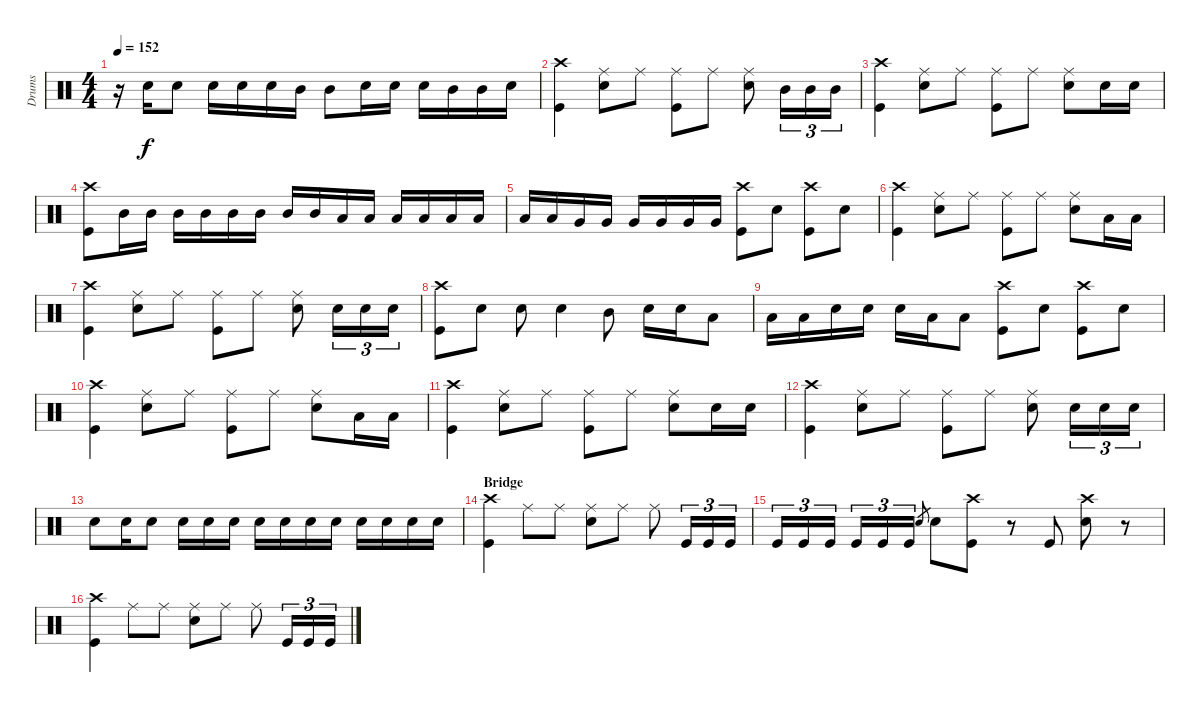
\track ("Drums" "Drums") {instrument percussion}
\staff {score}
\articulation defaults
\ts (4 4)
\tempo 152
\clef neutral
\ks c
r.16{dy f} "Snare (hit) 2".16 "Snare (hit) 2".8 "Snare (hit) 2".16 "Snare (hit) 2".16 "Snare (hit) 2".16 "Mid Tom (hit)".16 "Mid Tom (hit)".8 "Snare (hit) 2".16 "Snare (hit) 2".16 "Snare (hit) 2".16 "Mid Tom (hit)".16 "Mid Tom (hit)".16 "Snare (hit) 2".16 |
("Crash high (hit)" "Kick (hit)").4 ("Ride (middle)" "Snare (hit) 2").8 "Ride (middle)".8 ("Ride (middle)" "Kick (hit)").8 "Ride (middle)".8 ("Ride (middle)" "Snare (hit) 2").8 "Mid Tom (hit)".16{tu (3 2)} "Mid Tom (hit)".16{tu (3 2)} "Mid Tom (hit)".16{tu (3 2)} |
("Crash high (hit)" "Kick (hit)").4 ("Ride (middle)" "Snare (hit) 2").8 "Ride (middle)".8 ("Ride (middle)" "Kick (hit)").8 "Ride (middle)".8 ("Ride (middle)" "Snare (hit) 2").8 "Snare (hit) 2".16 "Snare (hit) 2".16 |
("Crash high (hit)" "Kick (hit)").8 "Mid Tom (hit)".16 "Mid Tom (hit)".16 "Mid Tom (hit)".16 "Mid Tom (hit)".16 "Mid Tom (hit)".16 "Mid Tom (hit)".16 "Mid Tom (hit)".16 "Mid Tom (hit)".16 "Low Tom (hit)".16 "Low Tom (hit)".16 "Low Tom (hit)".16 "Low Tom (hit)".16 "Low Tom (hit)".16 "Low Tom (hit)".16 |
"Low Tom (hit)".16 "Low Tom (hit)".16 "Very Low Tom (hit)".16 "Very Low Tom (hit)".16 "Very Low Tom (hit)".16 "Very Low Tom (hit)".16 "Very Low Tom (hit)".16 "Very Low Tom (hit)".16 ("Crash high (hit)" "Kick (hit)").8 "Snare (hit) 2".8 ("Crash high (hit)" "Kick (hit)").8 "Snare (hit) 2".8 |
("Crash high (hit)" "Kick (hit)").4 ("Ride (middle)" "Snare (hit) 2").8 "Ride (middle)".8 ("Ride (middle)" "Kick (hit)").8 "Ride (middle)".8 ("Ride (middle)" "Snare (hit) 2").8 "Low Tom (hit)".16 "Low Tom (hit)".16 |
("Crash high (hit)" "Kick (hit)").4 ("Ride (middle)" "Snare (hit) 2").8 "Ride (middle)".8 ("Ride (middle)" "Kick (hit)").8 "Ride (middle)".8 ("Ride (middle)" "Snare (hit) 2").8 "Snare (hit) 2".16{tu (3 2)} "Snare (hit) 2".16{tu (3 2)} "Snare (hit) 2".16{tu (3 2)} |
("Crash high (hit)" "Kick (hit)").8 "Snare (hit) 2".8 "Snare (hit) 2".8 "Snare (hit) 2".4 "Mid Tom (hit)".8 "Snare (hit) 2".16 "Snare (hit) 2".16 "Low Tom (hit)".8 |
"Low Tom (hit)".16 "Low Tom (hit)".16 "Snare (hit) 2".16 "Snare (hit) 2".16 "Snare (hit) 2".16 "Low Tom (hit)".16 "Low Tom (hit)".8 ("Crash high (hit)" "Kick (hit)").8 "Snare (hit) 2".8 ("Crash high (hit)" "Kick (hit)").8 "Snare (hit) 2".8 |
("Crash high (hit)" "Kick (hit)").4 ("Ride (middle)" "Snare (hit) 2").8 "Ride (middle)".8 ("Ride (middle)" "Kick (hit)").8 "Ride (middle)".8 ("Ride (middle)" "Snare (hit) 2").8 "Low Tom (hit)".16 "Low Tom (hit)".16 |
("Crash high (hit)" "Kick (hit)").4 ("Ride (middle)" "Snare (hit) 2").8 "Ride (middle)".8 ("Ride (middle)" "Kick (hit)").8 "Ride (middle)".8 ("Ride (middle)" "Snare (hit) 2").8 "Snare (hit) 2".16 "Snare (hit) 2".16 |
("Crash high (hit)" "Kick (hit)").4 ("Ride (middle)" "Snare (hit) 2").8 "Ride (middle)".8 ("Ride (middle)" "Kick (hit)").8 "Ride (middle)".8 ("Ride (middle)" "Snare (hit) 2").8 "Snare (hit) 2".16{tu (3 2)} "Snare (hit) 2".16{tu (3 2)} "Snare (hit) 2".16{tu (3 2)} |
"Snare (hit) 2".8 "Snare (hit) 2".16 "Snare (hit) 2".8 "Snare (hit) 2".16 "Snare (hit) 2".16 "Snare (hit) 2".16 "Snare (hit) 2".16 "Snare (hit) 2".16 "Snare (hit) 2".16 "Snare (hit) 2".16 "Snare (hit) 2".16 "Snare (hit) 2".16 "Snare (hit) 2".16 "Snare (hit) 2".16 |
\section ("" "Bridge")
("Crash high (hit)" "Kick (hit)").4 "Ride (middle)".8 "Ride (middle)".8 ("Ride (middle)" "Snare (hit) 2").8 "Ride (middle)".8 "Ride (middle)".8 "Kick (hit)".16{tu (3 2)} "Kick (hit)".16{tu (3 2)} "Kick (hit)".16{tu (3 2)} |
"Kick (hit)".16{tu (3 2)} "Kick (hit)".16{tu (3 2)} "Kick (hit)".16{tu (3 2)} "Kick (hit)".16{tu (3 2)} "Kick (hit)".16{tu (3 2)} "Kick (hit)".16{tu (3 2)} "Snare (hit) 2".8{gr} "Snare (hit) 2".8 ("Crash high (hit)" "Kick (hit)").8 r.8 "Kick (hit)".8 ("Crash high (hit)" "Snare (hit) 2").8 r.8 |
("Crash high (hit)" "Kick (hit)").4 "Ride (middle)".8 "Ride (middle)".8 ("Ride (middle)" "Snare (hit) 2").8 "Ride (middle)".8 "Ride (middle)".8 "Kick (hit)".16{tu (3 2)} "Kick (hit)".16{tu (3 2)} "Kick (hit)".16{tu (3 2)}
